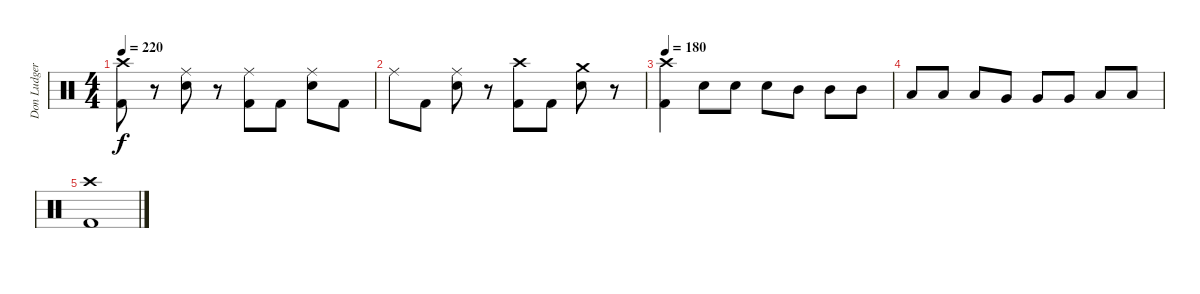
\track ("Don Ludger" "Don Ludger") {instrument percussion}
\staff {score}
\articulation defaults
\ts (4 4)
\tempo 220
\clef neutral
\ks c
("Crash high (hit)" "Kick (hit) 2").8{dy f} r.8 ("Ride (middle)" "Electric Snare (hit)").8 r.8 ("Ride (middle)" "Kick (hit) 2").8 "Kick (hit) 2".8 ("Ride (middle)" "Electric Snare (hit)").8 "Kick (hit) 2".8 |
"Ride (middle)".8 "Kick (hit) 2".8 ("Ride (middle)" "Electric Snare (hit)").8 r.8 ("Crash high (hit)" "Kick (hit) 2").8 "Kick (hit) 2".8 ("Crash medium (hit)" "Electric Snare (hit)").8 r.8 |
\tempo 180
("Crash high (hit)" "Kick (hit) 2").4 "Electric Snare (hit)".8 "Electric Snare (hit)".8 "Electric Snare (hit)".8 "Mid Tom (hit)".8 "Mid Tom (hit)".8 "Mid Tom (hit)".8 |
"Low Tom (hit)".8 "Low Tom (hit)".8 "Low Tom (hit)".8 "Very Low Tom (hit)".8 "Very Low Tom (hit)".8 "Very Low Tom (hit)".8 "Low Floor Tom (hit)".8 "Low Floor Tom (hit)".8 |
("Crash high (hit)" "Kick (hit) 2").1
